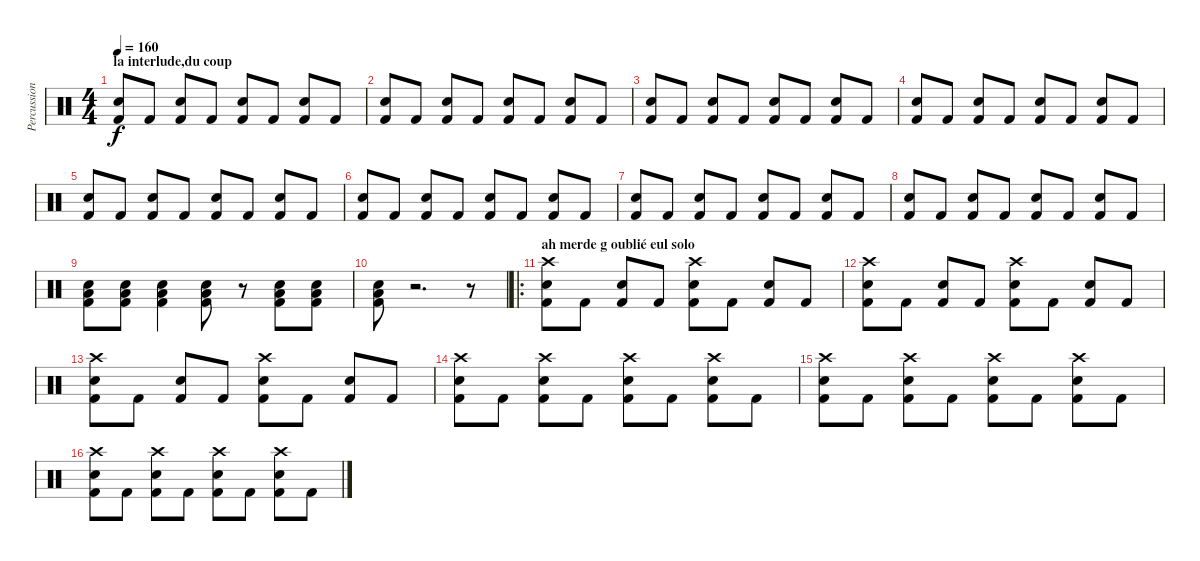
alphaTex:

\track ("Percussions" "Percussion") {instrument percussion}
\staff {score}
\articulation defaults
\ts (4 4)
\section ("" "la interlude,du coup")
\tempo 160
\clef neutral
\ks c
("Electric Snare (hit)" "Kick (hit) 2").8{dy f} "Kick (hit) 2".8 ("Electric Snare (hit)" "Kick (hit) 2").8 "Kick (hit) 2".8 ("Electric Snare (hit)" "Kick (hit) 2").8 "Kick (hit) 2".8 ("Electric Snare (hit)" "Kick (hit) 2").8 "Kick (hit) 2".8 |
("Electric Snare (hit)" "Kick (hit) 2").8 "Kick (hit) 2".8 ("Electric Snare (hit)" "Kick (hit) 2").8 "Kick (hit) 2".8 ("Electric Snare (hit)" "Kick (hit) 2").8 "Kick (hit) 2".8 ("Electric Snare (hit)" "Kick (hit) 2").8 "Kick (hit) 2".8 |
("Electric Snare (hit)" "Kick (hit) 2").8 "Kick (hit) 2".8 ("Electric Snare (hit)" "Kick (hit) 2").8 "Kick (hit) 2".8 ("Electric Snare (hit)" "Kick (hit) 2").8 "Kick (hit) 2".8 ("Electric Snare (hit)" "Kick (hit) 2").8 "Kick (hit) 2".8 |
("Electric Snare (hit)" "Kick (hit) 2").8 "Kick (hit) 2".8 ("Electric Snare (hit)" "Kick (hit) 2").8 "Kick (hit) 2".8 ("Electric Snare (hit)" "Kick (hit) 2").8 "Kick (hit) 2".8 ("Electric Snare (hit)" "Kick (hit) 2").8 "Kick (hit) 2".8 |
("Electric Snare (hit)" "Kick (hit) 2").8 "Kick (hit) 2".8 ("Electric Snare (hit)" "Kick (hit) 2").8 "Kick (hit) 2".8 ("Electric Snare (hit)" "Kick (hit) 2").8 "Kick (hit) 2".8 ("Electric Snare (hit)" "Kick (hit) 2").8 "Kick (hit) 2".8 |
("Electric Snare (hit)" "Kick (hit) 2").8 "Kick (hit) 2".8 ("Electric Snare (hit)" "Kick (hit) 2").8 "Kick (hit) 2".8 ("Electric Snare (hit)" "Kick (hit) 2").8 "Kick (hit) 2".8 ("Electric Snare (hit)" "Kick (hit) 2").8 "Kick (hit) 2".8 |
("Electric Snare (hit)" "Kick (hit) 2").8 "Kick (hit) 2".8 ("Electric Snare (hit)" "Kick (hit) 2").8 "Kick (hit) 2".8 ("Electric Snare (hit)" "Kick (hit) 2").8 "Kick (hit) 2".8 ("Electric Snare (hit)" "Kick (hit) 2").8 "Kick (hit) 2".8 |
("Electric Snare (hit)" "Kick (hit) 2").8 "Kick (hit) 2".8 ("Electric Snare (hit)" "Kick (hit) 2").8 "Kick (hit) 2".8 ("Electric Snare (hit)" "Kick (hit) 2").8 "Kick (hit) 2".8 ("Electric Snare (hit)" "Kick (hit) 2").8 "Kick (hit) 2".8 |
("Electric Snare (hit)" "Kick (hit) 2" "Low Tom (hit)").8 ("Electric Snare (hit)" "Kick (hit) 2" "Low Tom (hit)").8 ("Electric Snare (hit)" "Kick (hit) 2" "Low Tom (hit)").4 ("Electric Snare (hit)" "Low Tom (hit)" "Kick (hit) 2").8 r.8 ("Low Tom (hit)" "Electric Snare (hit)" "Kick (hit) 2").8 ("Low Tom (hit)" "Electric Snare (hit)" "Kick (hit) 2").8 |
("Kick (hit) 2" "Low Tom (hit)" "Electric Snare (hit)").8 r.2{d} r.8 |
\ro
\section ("" "ah merde g oublié eul solo")
("Electric Snare (hit)" "Crash high (hit)" "Kick (hit) 2").8 "Kick (hit) 2".8 ("Electric Snare (hit)" "Kick (hit) 2").8 "Kick (hit) 2".8 ("Electric Snare (hit)" "Crash high (hit)" "Kick (hit) 2").8 "Kick (hit) 2".8 ("Electric Snare (hit)" "Kick (hit) 2").8 "Kick (hit) 2".8 |
("Electric Snare (hit)" "Crash high (hit)" "Kick (hit) 2").8 "Kick (hit) 2".8 ("Electric Snare (hit)" "Kick (hit) 2").8 "Kick (hit) 2".8 ("Electric Snare (hit)" "Crash high (hit)" "Kick (hit) 2").8 "Kick (hit) 2".8 ("Electric Snare (hit)" "Kick (hit) 2").8 "Kick (hit) 2".8 |
("Electric Snare (hit)" "Crash high (hit)" "Kick (hit) 2").8 "Kick (hit) 2".8 ("Electric Snare (hit)" "Kick (hit) 2").8 "Kick (hit) 2".8 ("Electric Snare (hit)" "Crash high (hit)" "Kick (hit) 2").8 "Kick (hit) 2".8 ("Electric Snare (hit)" "Kick (hit) 2").8 "Kick (hit) 2".8 |
("Electric Snare (hit)" "Crash high (hit)" "Kick (hit) 2").8 "Kick (hit) 2".8 ("Electric Snare (hit)" "Crash high (hit)" "Kick (hit) 2").8 "Kick (hit) 2".8 ("Electric Snare (hit)" "Crash high (hit)" "Kick (hit) 2").8 "Kick (hit) 2".8 ("Electric Snare (hit)" "Crash high (hit)" "Kick (hit) 2").8 "Kick (hit) 2".8 |
("Electric Snare (hit)" "Crash high (hit)" "Kick (hit) 2").8 "Kick (hit) 2".8 ("Electric Snare (hit)" "Crash high (hit)" "Kick (hit) 2").8 "Kick (hit) 2".8 ("Electric Snare (hit)" "Crash high (hit)" "Kick (hit) 2").8 "Kick (hit) 2".8 ("Electric Snare (hit)" "Crash high (hit)" "Kick (hit) 2").8 "Kick (hit) 2".8 |
("Electric Snare (hit)" "Crash high (hit)" "Kick (hit) 2").8 "Kick (hit) 2".8 ("Electric Snare (hit)" "Crash high (hit)" "Kick (hit) 2").8 "Kick (hit) 2".8 ("Electric Snare (hit)" "Crash high (hit)" "Kick (hit) 2").8 "Kick (hit) 2".8 ("Electric Snare (hit)" "Crash high (hit)" "Kick (hit) 2").8 "Kick (hit) 2".8
